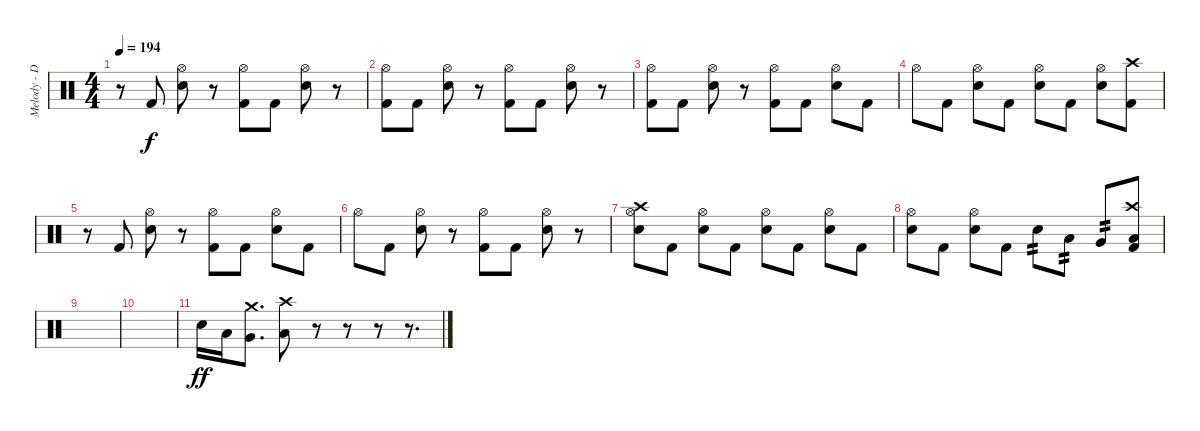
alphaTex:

\track ("Melody - Drums" "Melody - D") {instrument percussion}
\staff {score}
\articulation defaults
\ts (4 4)
\tempo 194
\clef neutral
\ks c
r.8{dy f} "Kick (hit) 2".8 ("Hi-Hat (open)" "Electric Snare (hit)").8 r.8 ("Hi-Hat (open)" "Kick (hit) 2").8 "Kick (hit) 2".8 ("Hi-Hat (open)" "Electric Snare (hit)").8 r.8 |
("Hi-Hat (open)" "Kick (hit) 2").8 "Kick (hit) 2".8 ("Hi-Hat (open)" "Electric Snare (hit)").8 r.8 ("Hi-Hat (open)" "Kick (hit) 2").8 "Kick (hit) 2".8 ("Hi-Hat (open)" "Electric Snare (hit)").8 r.8 |
("Hi-Hat (open)" "Kick (hit) 2").8 "Kick (hit) 2".8 ("Hi-Hat (open)" "Electric Snare (hit)").8 r.8 ("Hi-Hat (open)" "Kick (hit) 2").8 "Kick (hit) 2".8 ("Hi-Hat (open)" "Electric Snare (hit)").8 "Kick (hit) 2".8 |
"Hi-Hat (open)".8 "Kick (hit) 2".8 ("Hi-Hat (open)" "Electric Snare (hit)").8 "Kick (hit) 2".8 ("Hi-Hat (open)" "Electric Snare (hit)").8 "Kick (hit) 2".8 ("Hi-Hat (open)" "Electric Snare (hit)").8 ("Crash high (hit)" "Kick (hit) 2").8 |
r.8 "Kick (hit) 2".8 ("Hi-Hat (open)" "Electric Snare (hit)").8 r.8 ("Hi-Hat (open)" "Kick (hit) 2").8 "Kick (hit) 2".8 ("Hi-Hat (open)" "Electric Snare (hit)").8 "Kick (hit) 2".8 |
"Hi-Hat (open)".8 "Kick (hit) 2".8 ("Hi-Hat (open)" "Electric Snare (hit)").8 r.8 ("Hi-Hat (open)" "Kick (hit) 2").8 "Kick (hit) 2".8 ("Hi-Hat (open)" "Electric Snare (hit)").8 r.8 |
("Crash high (hit)" "Hi-Hat (open)" "Electric Snare (hit)").8 "Kick (hit) 2".8 ("Hi-Hat (open)" "Electric Snare (hit)").8 "Kick (hit) 2".8 ("Hi-Hat (open)" "Electric Snare (hit)").8 "Kick (hit) 2".8 ("Hi-Hat (open)" "Electric Snare (hit)").8 "Kick (hit) 2".8 |
("Hi-Hat (open)" "Electric Snare (hit)").8 "Kick (hit) 2".8 ("Hi-Hat (open)" "Electric Snare (hit)").8 "Kick (hit) 2".8 "Electric Snare (hit)".8{tp 2} "Low Tom (hit)".8{tp 2} "Very Low Tom (hit)".8{tp 2} ("Crash high (hit)" "Low Floor Tom (hit)" "Kick (hit) 2").8 |
|
|
"Electric Snare (hit)".16{dy ff} "Low Tom (hit)".16 ("Crash medium (hit)" "Very Low Tom (hit)").8{d} ("Crash high (hit)" "Low Tom (hit)").8 r.8 r.8 r.8 r.8{d}
